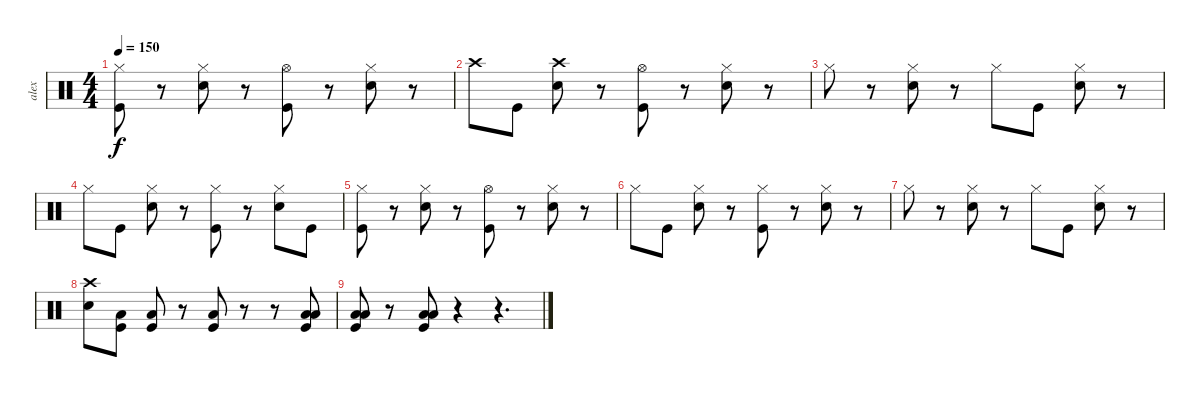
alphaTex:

\track ("alex" "alex") {instrument percussion}
\staff {score}
\articulation defaults
\ts (4 4)
\tempo 150
\clef neutral
\ks c
("Hi-Hat (closed)" "Kick (hit)").8{dy f} r.8 ("Hi-Hat (closed)" "Snare (hit) 2").8 r.8 ("Hi-Hat (open)" "Kick (hit)").8 r.8 ("Hi-Hat (closed)" "Snare (hit) 2").8 r.8 |
"Crash high (hit)".8 "Kick (hit)".8 ("Crash high (hit)" "Snare (hit) 2").8 r.8 ("Hi-Hat (open)" "Kick (hit)").8 r.8 ("Hi-Hat (closed)" "Snare (hit) 2").8 r.8 |
"Hi-Hat (closed)".8 r.8 ("Hi-Hat (closed)" "Snare (hit) 2").8 r.8 "Hi-Hat (closed)".8 "Kick (hit)".8 ("Hi-Hat (closed)" "Snare (hit) 2").8 r.8 |
"Hi-Hat (closed)".8 "Kick (hit)".8 ("Hi-Hat (closed)" "Snare (hit) 2").8 r.8 ("Hi-Hat (closed)" "Kick (hit)").8 r.8 ("Hi-Hat (closed)" "Snare (hit) 2").8 "Kick (hit)".8 |
("Hi-Hat (closed)" "Kick (hit)").8 r.8 ("Hi-Hat (closed)" "Snare (hit) 2").8 r.8 ("Hi-Hat (open)" "Kick (hit)").8 r.8 ("Hi-Hat (closed)" "Snare (hit) 2").8 r.8 |
"Hi-Hat (closed)".8 "Kick (hit)".8 ("Hi-Hat (closed)" "Snare (hit) 2").8 r.8 ("Hi-Hat (closed)" "Kick (hit)").8 r.8 ("Hi-Hat (closed)" "Snare (hit) 2").8 r.8 |
"Hi-Hat (closed)".8 r.8 ("Hi-Hat (closed)" "Snare (hit) 2").8 r.8 "Hi-Hat (closed)".8 "Kick (hit)".8 ("Hi-Hat (closed)" "Snare (hit) 2").8 r.8 |
("Crash high (hit)" "Snare (hit) 2").8 ("Low Floor Tom (hit)" "Kick (hit)").8 ("Low Floor Tom (hit)" "Kick (hit)").8 r.8 ("Low Floor Tom (hit)" "Kick (hit)").8 r.8 r.8 ("Low Tom (hit)" "Low Floor Tom (hit)" "Kick (hit)").8 |
("Low Tom (hit)" "Low Floor Tom (hit)" "Kick (hit)").8 r.8 ("Low Tom (hit)" "Low Floor Tom (hit)" "Kick (hit)").8 r.4 r.4{d}
